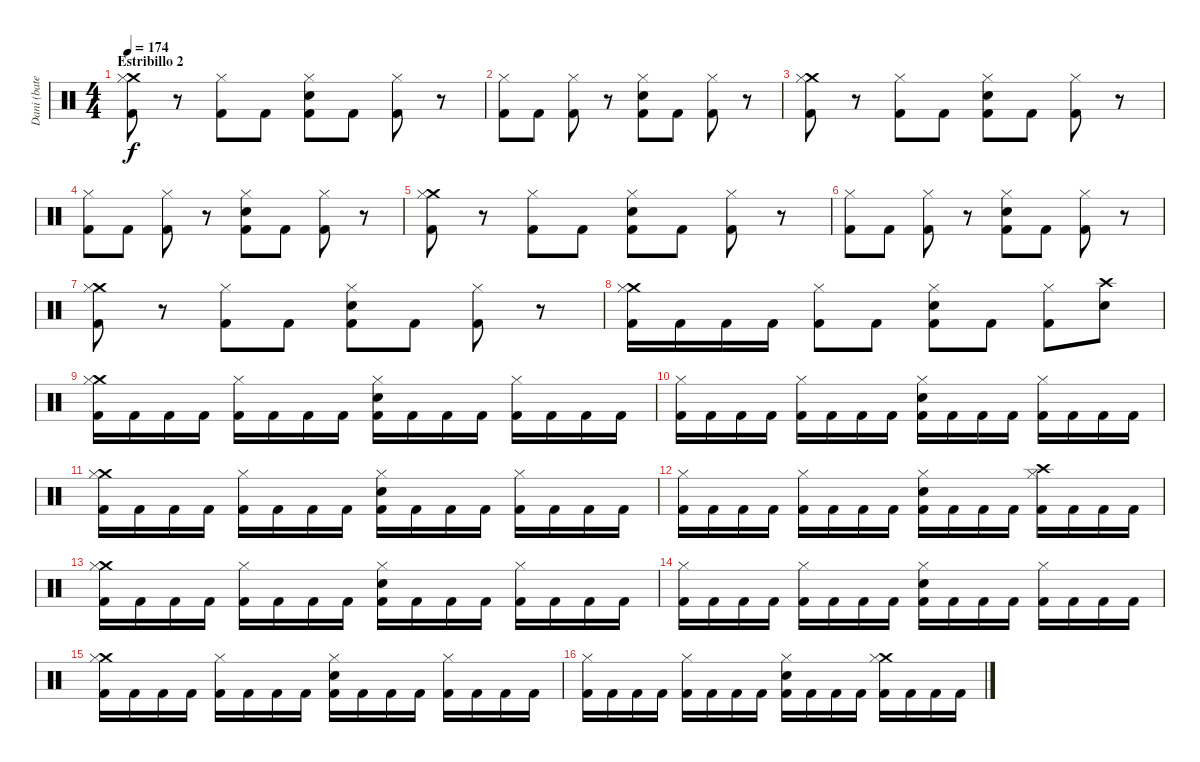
\track ("Dani (batería)" "Dani (bate") {instrument percussion}
\staff {score}
\articulation defaults
\ts (4 4)
\section ("" "Estribillo 2")
\tempo 174
\clef neutral
\ks c
("Crash medium (hit)" "Hi-Hat (closed)" "Kick (hit) 2").8{dy f} r.8 ("Hi-Hat (closed)" "Kick (hit) 2").8 "Kick (hit) 2".8 ("Hi-Hat (closed)" "Electric Snare (hit)" "Kick (hit) 2").8 "Kick (hit) 2".8 ("Hi-Hat (closed)" "Kick (hit) 2").8 r.8 |
("Hi-Hat (closed)" "Kick (hit) 2").8 "Kick (hit) 2".8 ("Hi-Hat (closed)" "Kick (hit) 2").8 r.8 ("Hi-Hat (closed)" "Electric Snare (hit)" "Kick (hit) 2").8 "Kick (hit) 2".8 ("Hi-Hat (closed)" "Kick (hit) 2").8 r.8 |
("Crash medium (hit)" "Hi-Hat (closed)" "Kick (hit) 2").8 r.8 ("Hi-Hat (closed)" "Kick (hit) 2").8 "Kick (hit) 2".8 ("Hi-Hat (closed)" "Electric Snare (hit)" "Kick (hit) 2").8 "Kick (hit) 2".8 ("Hi-Hat (closed)" "Kick (hit) 2").8 r.8 |
("Hi-Hat (closed)" "Kick (hit) 2").8 "Kick (hit) 2".8 ("Hi-Hat (closed)" "Kick (hit) 2").8 r.8 ("Hi-Hat (closed)" "Electric Snare (hit)" "Kick (hit) 2").8 "Kick (hit) 2".8 ("Hi-Hat (closed)" "Kick (hit) 2").8 r.8 |
("Crash medium (hit)" "Hi-Hat (closed)" "Kick (hit) 2").8 r.8 ("Hi-Hat (closed)" "Kick (hit) 2").8 "Kick (hit) 2".8 ("Hi-Hat (closed)" "Electric Snare (hit)" "Kick (hit) 2").8 "Kick (hit) 2".8 ("Hi-Hat (closed)" "Kick (hit) 2").8 r.8 |
("Hi-Hat (closed)" "Kick (hit) 2").8 "Kick (hit) 2".8 ("Hi-Hat (closed)" "Kick (hit) 2").8 r.8 ("Hi-Hat (closed)" "Electric Snare (hit)" "Kick (hit) 2").8 "Kick (hit) 2".8 ("Hi-Hat (closed)" "Kick (hit) 2").8 r.8 |
("Crash medium (hit)" "Hi-Hat (closed)" "Kick (hit) 2").8 r.8 ("Hi-Hat (closed)" "Kick (hit) 2").8 "Kick (hit) 2".8 ("Hi-Hat (closed)" "Electric Snare (hit)" "Kick (hit) 2").8 "Kick (hit) 2".8 ("Hi-Hat (closed)" "Kick (hit) 2").8 r.8 |
("Crash medium (hit)" "Hi-Hat (closed)" "Kick (hit) 2").16 "Kick (hit) 2".16 "Kick (hit) 2".16 "Kick (hit) 2".16 ("Hi-Hat (closed)" "Kick (hit) 2").8 "Kick (hit) 2".8 ("Hi-Hat (closed)" "Electric Snare (hit)" "Kick (hit) 2").8 "Kick (hit) 2".8 ("Hi-Hat (closed)" "Kick (hit) 2").8 ("Crash high (hit)" "Electric Snare (hit)").8 |
("Crash medium (hit)" "Hi-Hat (closed)" "Kick (hit) 2").16 "Kick (hit) 2".16 "Kick (hit) 2".16 "Kick (hit) 2".16 ("Hi-Hat (closed)" "Kick (hit) 2").16 "Kick (hit) 2".16 "Kick (hit) 2".16 "Kick (hit) 2".16 ("Hi-Hat (closed)" "Electric Snare (hit)" "Kick (hit) 2").16 "Kick (hit) 2".16 "Kick (hit) 2".16 "Kick (hit) 2".16 ("Hi-Hat (closed)" "Kick (hit) 2").16 "Kick (hit) 2".16 "Kick (hit) 2".16 "Kick (hit) 2".16 |
("Hi-Hat (closed)" "Kick (hit) 2").16 "Kick (hit) 2".16 "Kick (hit) 2".16 "Kick (hit) 2".16 ("Hi-Hat (closed)" "Kick (hit) 2").16 "Kick (hit) 2".16 "Kick (hit) 2".16 "Kick (hit) 2".16 ("Hi-Hat (closed)" "Electric Snare (hit)" "Kick (hit) 2").16 "Kick (hit) 2".16 "Kick (hit) 2".16 "Kick (hit) 2".16 ("Hi-Hat (closed)" "Kick (hit) 2").16 "Kick (hit) 2".16 "Kick (hit) 2".16 "Kick (hit) 2".16 |
("Crash medium (hit)" "Hi-Hat (closed)" "Kick (hit) 2").16 "Kick (hit) 2".16 "Kick (hit) 2".16 "Kick (hit) 2".16 ("Hi-Hat (closed)" "Kick (hit) 2").16 "Kick (hit) 2".16 "Kick (hit) 2".16 "Kick (hit) 2".16 ("Hi-Hat (closed)" "Electric Snare (hit)" "Kick (hit) 2").16 "Kick (hit) 2".16 "Kick (hit) 2".16 "Kick (hit) 2".16 ("Hi-Hat (closed)" "Kick (hit) 2").16 "Kick (hit) 2".16 "Kick (hit) 2".16 "Kick (hit) 2".16 |
("Hi-Hat (closed)" "Kick (hit) 2").16 "Kick (hit) 2".16 "Kick (hit) 2".16 "Kick (hit) 2".16 ("Hi-Hat (closed)" "Kick (hit) 2").16 "Kick (hit) 2".16 "Kick (hit) 2".16 "Kick (hit) 2".16 ("Hi-Hat (closed)" "Electric Snare (hit)" "Kick (hit) 2").16 "Kick (hit) 2".16 "Kick (hit) 2".16 "Kick (hit) 2".16 ("Crash high (hit)" "Hi-Hat (closed)" "Kick (hit) 2").16 "Kick (hit) 2".16 "Kick (hit) 2".16 "Kick (hit) 2".16 |
("Crash medium (hit)" "Hi-Hat (closed)" "Kick (hit) 2").16 "Kick (hit) 2".16 "Kick (hit) 2".16 "Kick (hit) 2".16 ("Hi-Hat (closed)" "Kick (hit) 2").16 "Kick (hit) 2".16 "Kick (hit) 2".16 "Kick (hit) 2".16 ("Hi-Hat (closed)" "Electric Snare (hit)" "Kick (hit) 2").16 "Kick (hit) 2".16 "Kick (hit) 2".16 "Kick (hit) 2".16 ("Hi-Hat (closed)" "Kick (hit) 2").16 "Kick (hit) 2".16 "Kick (hit) 2".16 "Kick (hit) 2".16 |
("Hi-Hat (closed)" "Kick (hit) 2").16 "Kick (hit) 2".16 "Kick (hit) 2".16 "Kick (hit) 2".16 ("Hi-Hat (closed)" "Kick (hit) 2").16 "Kick (hit) 2".16 "Kick (hit) 2".16 "Kick (hit) 2".16 ("Hi-Hat (closed)" "Electric Snare (hit)" "Kick (hit) 2").16 "Kick (hit) 2".16 "Kick (hit) 2".16 "Kick (hit) 2".16 ("Hi-Hat (closed)" "Kick (hit) 2").16 "Kick (hit) 2".16 "Kick (hit) 2".16 "Kick (hit) 2".16 |
("Crash medium (hit)" "Hi-Hat (closed)" "Kick (hit) 2").16 "Kick (hit) 2".16 "Kick (hit) 2".16 "Kick (hit) 2".16 ("Hi-Hat (closed)" "Kick (hit) 2").16 "Kick (hit) 2".16 "Kick (hit) 2".16 "Kick (hit) 2".16 ("Hi-Hat (closed)" "Electric Snare (hit)" "Kick (hit) 2").16 "Kick (hit) 2".16 "Kick (hit) 2".16 "Kick (hit) 2".16 ("Hi-Hat (closed)" "Kick (hit) 2").16 "Kick (hit) 2".16 "Kick (hit) 2".16 "Kick (hit) 2".16 |
("Hi-Hat (closed)" "Kick (hit) 2").16 "Kick (hit) 2".16 "Kick (hit) 2".16 "Kick (hit) 2".16 ("Hi-Hat (closed)" "Kick (hit) 2").16 "Kick (hit) 2".16 "Kick (hit) 2".16 "Kick (hit) 2".16 ("Hi-Hat (closed)" "Electric Snare (hit)" "Kick (hit) 2").16 "Kick (hit) 2".16 "Kick (hit) 2".16 "Kick (hit) 2".16 ("Crash medium (hit)" "Hi-Hat (closed)" "Kick (hit) 2").16 "Kick (hit) 2".16 "Kick (hit) 2".16 "Kick (hit) 2".16
